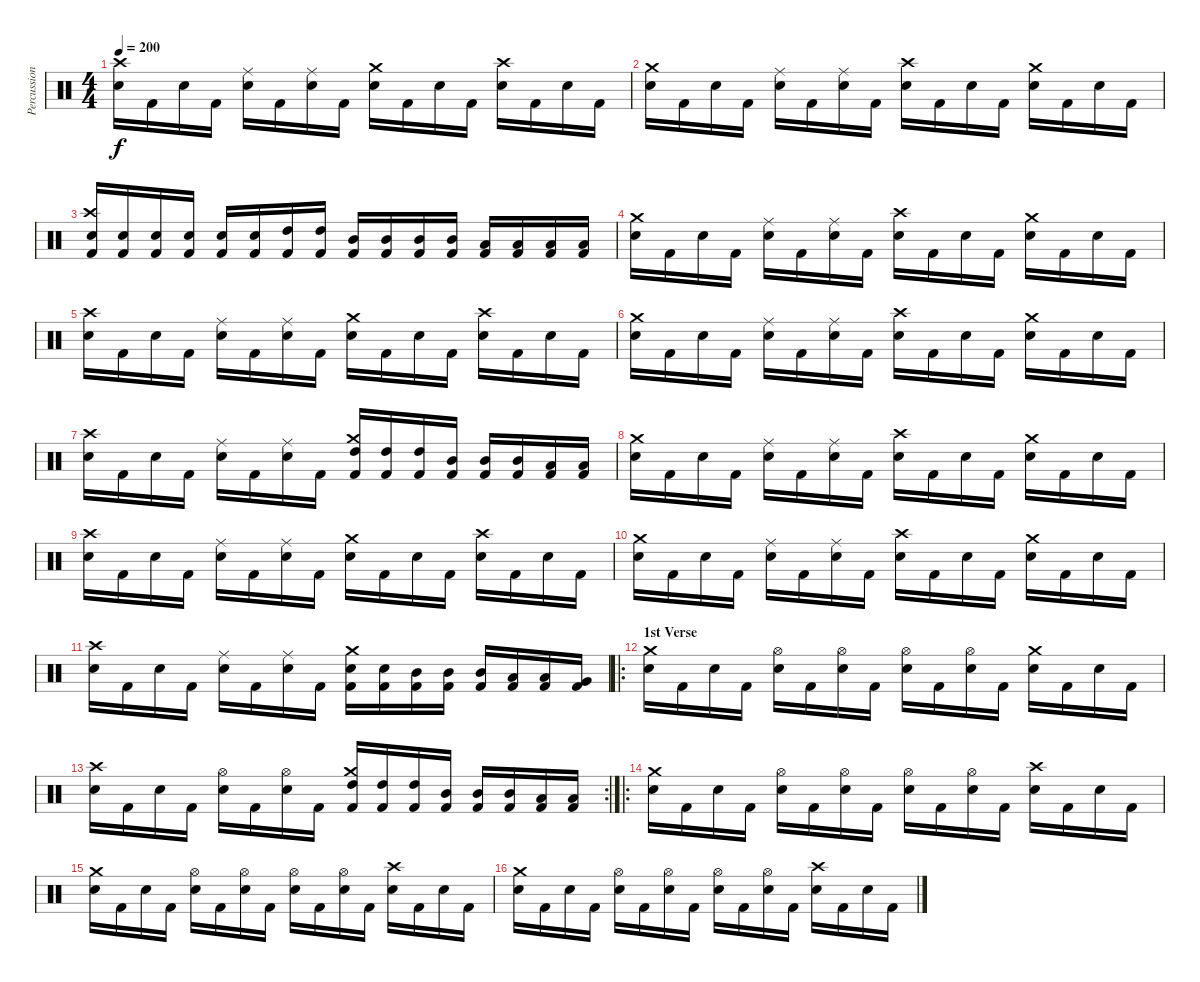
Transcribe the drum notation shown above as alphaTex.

\track ("Percussion" "Percussion") {instrument percussion}
\staff {score}
\articulation defaults
\ts (4 4)
\tempo 200
\clef neutral
\ks c
("Snare (hit) 2" "Crash high (hit)").16{dy f} "Kick (hit) 2".16 "Snare (hit) 2".16 "Kick (hit) 2".16 ("Snare (hit) 2" "Ride (middle)").16 "Kick (hit) 2".16 ("Snare (hit) 2" "Ride (middle)").16 "Kick (hit) 2".16 ("Snare (hit) 2" "Crash medium (hit)").16 "Kick (hit) 2".16 "Snare (hit) 2".16 "Kick (hit) 2".16 ("Snare (hit) 2" "Crash high (hit)").16 "Kick (hit) 2".16 "Snare (hit) 2".16 "Kick (hit) 2".16 |
("Snare (hit) 2" "Crash medium (hit)").16 "Kick (hit) 2".16 "Snare (hit) 2".16 "Kick (hit) 2".16 ("Snare (hit) 2" "Ride (middle)").16 "Kick (hit) 2".16 ("Snare (hit) 2" "Ride (middle)").16 "Kick (hit) 2".16 ("Snare (hit) 2" "Crash high (hit)").16 "Kick (hit) 2".16 "Snare (hit) 2".16 "Kick (hit) 2".16 ("Snare (hit) 2" "Crash medium (hit)").16 "Kick (hit) 2".16 "Snare (hit) 2".16 "Kick (hit) 2".16 |
("Kick (hit) 2" "Snare (hit) 2" "Crash high (hit)").16 ("Kick (hit) 2" "Snare (hit) 2").16 ("Kick (hit) 2" "Snare (hit) 2").16 ("Kick (hit) 2" "Snare (hit) 2").16 ("Kick (hit) 2" "Snare (hit) 2").16 ("Kick (hit) 2" "Snare (hit) 2").16 ("Kick (hit) 2" "High Tom (hit)").16 ("Kick (hit) 2" "High Tom (hit)").16 ("Kick (hit) 2" "Mid Tom (hit)").16 ("Kick (hit) 2" "Mid Tom (hit)").16 ("Kick (hit) 2" "Mid Tom (hit)").16 ("Kick (hit) 2" "Mid Tom (hit)").16 ("Kick (hit) 2" "Low Tom (hit)").16 ("Kick (hit) 2" "Low Tom (hit)").16 ("Kick (hit) 2" "Low Tom (hit)").16 ("Kick (hit) 2" "Low Tom (hit)").16 |
("Snare (hit) 2" "Crash medium (hit)").16 "Kick (hit) 2".16 "Snare (hit) 2".16 "Kick (hit) 2".16 ("Snare (hit) 2" "Ride (middle)").16 "Kick (hit) 2".16 ("Snare (hit) 2" "Ride (middle)").16 "Kick (hit) 2".16 ("Snare (hit) 2" "Crash high (hit)").16 "Kick (hit) 2".16 "Snare (hit) 2".16 "Kick (hit) 2".16 ("Snare (hit) 2" "Crash medium (hit)").16 "Kick (hit) 2".16 "Snare (hit) 2".16 "Kick (hit) 2".16 |
("Snare (hit) 2" "Crash high (hit)").16 "Kick (hit) 2".16 "Snare (hit) 2".16 "Kick (hit) 2".16 ("Snare (hit) 2" "Ride (middle)").16 "Kick (hit) 2".16 ("Snare (hit) 2" "Ride (middle)").16 "Kick (hit) 2".16 ("Snare (hit) 2" "Crash medium (hit)").16 "Kick (hit) 2".16 "Snare (hit) 2".16 "Kick (hit) 2".16 ("Snare (hit) 2" "Crash high (hit)").16 "Kick (hit) 2".16 "Snare (hit) 2".16 "Kick (hit) 2".16 |
("Snare (hit) 2" "Crash medium (hit)").16 "Kick (hit) 2".16 "Snare (hit) 2".16 "Kick (hit) 2".16 ("Snare (hit) 2" "Ride (middle)").16 "Kick (hit) 2".16 ("Snare (hit) 2" "Ride (middle)").16 "Kick (hit) 2".16 ("Snare (hit) 2" "Crash high (hit)").16 "Kick (hit) 2".16 "Snare (hit) 2".16 "Kick (hit) 2".16 ("Snare (hit) 2" "Crash medium (hit)").16 "Kick (hit) 2".16 "Snare (hit) 2".16 "Kick (hit) 2".16 |
("Snare (hit) 2" "Crash high (hit)").16 "Kick (hit) 2".16 "Snare (hit) 2".16 "Kick (hit) 2".16 ("Snare (hit) 2" "Ride (middle)").16 "Kick (hit) 2".16 ("Snare (hit) 2" "Ride (middle)").16 "Kick (hit) 2".16 ("Kick (hit) 2" "High Tom (hit)" "Crash medium (hit)").16 ("Kick (hit) 2" "High Tom (hit)").16 ("Kick (hit) 2" "High Tom (hit)").16 ("Kick (hit) 2" "Mid Tom (hit)").16 ("Kick (hit) 2" "Mid Tom (hit)").16 ("Kick (hit) 2" "Mid Tom (hit)").16 ("Kick (hit) 2" "Low Tom (hit)").16 ("Kick (hit) 2" "Low Tom (hit)").16 |
("Snare (hit) 2" "Crash medium (hit)").16 "Kick (hit) 2".16 "Snare (hit) 2".16 "Kick (hit) 2".16 ("Snare (hit) 2" "Ride (middle)").16 "Kick (hit) 2".16 ("Snare (hit) 2" "Ride (middle)").16 "Kick (hit) 2".16 ("Snare (hit) 2" "Crash high (hit)").16 "Kick (hit) 2".16 "Snare (hit) 2".16 "Kick (hit) 2".16 ("Snare (hit) 2" "Crash medium (hit)").16 "Kick (hit) 2".16 "Snare (hit) 2".16 "Kick (hit) 2".16 |
("Snare (hit) 2" "Crash high (hit)").16 "Kick (hit) 2".16 "Snare (hit) 2".16 "Kick (hit) 2".16 ("Snare (hit) 2" "Ride (middle)").16 "Kick (hit) 2".16 ("Snare (hit) 2" "Ride (middle)").16 "Kick (hit) 2".16 ("Snare (hit) 2" "Crash medium (hit)").16 "Kick (hit) 2".16 "Snare (hit) 2".16 "Kick (hit) 2".16 ("Snare (hit) 2" "Crash high (hit)").16 "Kick (hit) 2".16 "Snare (hit) 2".16 "Kick (hit) 2".16 |
("Snare (hit) 2" "Crash medium (hit)").16 "Kick (hit) 2".16 "Snare (hit) 2".16 "Kick (hit) 2".16 ("Snare (hit) 2" "Ride (middle)").16 "Kick (hit) 2".16 ("Snare (hit) 2" "Ride (middle)").16 "Kick (hit) 2".16 ("Snare (hit) 2" "Crash high (hit)").16 "Kick (hit) 2".16 "Snare (hit) 2".16 "Kick (hit) 2".16 ("Snare (hit) 2" "Crash medium (hit)").16 "Kick (hit) 2".16 "Snare (hit) 2".16 "Kick (hit) 2".16 |
("Snare (hit) 2" "Crash high (hit)").16 "Kick (hit) 2".16 "Snare (hit) 2".16 "Kick (hit) 2".16 ("Snare (hit) 2" "Ride (middle)").16 "Kick (hit) 2".16 ("Snare (hit) 2" "Ride (middle)").16 "Kick (hit) 2".16 ("Kick (hit) 2" "Snare (hit) 2" "Crash medium (hit)").16 ("Kick (hit) 2" "Snare (hit) 2").16 ("Kick (hit) 2" "Mid Tom (hit)").16 ("Kick (hit) 2" "Mid Tom (hit)").16 ("Kick (hit) 2" "Mid Tom (hit)").16 ("Kick (hit) 2" "Low Tom (hit)").16 ("Kick (hit) 2" "Low Tom (hit)").16 ("Kick (hit) 2" "Very Low Tom (hit)").16 |
\ro
\section ("" "1st Verse")
("Snare (hit) 2" "Crash medium (hit)").16 "Kick (hit) 2".16 "Snare (hit) 2".16 "Kick (hit) 2".16 ("Snare (hit) 2" "Hi-Hat (open)").16 "Kick (hit) 2".16 ("Snare (hit) 2" "Hi-Hat (open)").16 "Kick (hit) 2".16 ("Snare (hit) 2" "Hi-Hat (open)").16 "Kick (hit) 2".16 ("Snare (hit) 2" "Hi-Hat (open)").16 "Kick (hit) 2".16 ("Snare (hit) 2" "Crash medium (hit)").16 "Kick (hit) 2".16 "Snare (hit) 2".16 "Kick (hit) 2".16 |
\rc 2
("Snare (hit) 2" "Crash high (hit)").16 "Kick (hit) 2".16 "Snare (hit) 2".16 "Kick (hit) 2".16 ("Snare (hit) 2" "Hi-Hat (open)").16 "Kick (hit) 2".16 ("Snare (hit) 2" "Hi-Hat (open)").16 "Kick (hit) 2".16 ("Kick (hit) 2" "High Tom (hit)" "Crash medium (hit)").16 ("Kick (hit) 2" "High Tom (hit)").16 ("Kick (hit) 2" "High Tom (hit)").16 ("Kick (hit) 2" "Mid Tom (hit)").16 ("Kick (hit) 2" "Mid Tom (hit)").16 ("Kick (hit) 2" "Mid Tom (hit)").16 ("Kick (hit) 2" "Low Tom (hit)").16 ("Kick (hit) 2" "Low Tom (hit)").16 |
\ro
("Snare (hit) 2" "Crash medium (hit)").16 "Kick (hit) 2".16 "Snare (hit) 2".16 "Kick (hit) 2".16 ("Snare (hit) 2" "Hi-Hat (open)").16 "Kick (hit) 2".16 ("Snare (hit) 2" "Hi-Hat (open)").16 "Kick (hit) 2".16 ("Snare (hit) 2" "Hi-Hat (open)").16 "Kick (hit) 2".16 ("Snare (hit) 2" "Hi-Hat (open)").16 "Kick (hit) 2".16 ("Snare (hit) 2" "Crash high (hit)").16 "Kick (hit) 2".16 "Snare (hit) 2".16 "Kick (hit) 2".16 |
("Snare (hit) 2" "Crash medium (hit)").16 "Kick (hit) 2".16 "Snare (hit) 2".16 "Kick (hit) 2".16 ("Snare (hit) 2" "Hi-Hat (open)").16 "Kick (hit) 2".16 ("Snare (hit) 2" "Hi-Hat (open)").16 "Kick (hit) 2".16 ("Snare (hit) 2" "Hi-Hat (open)").16 "Kick (hit) 2".16 ("Snare (hit) 2" "Hi-Hat (open)").16 "Kick (hit) 2".16 ("Snare (hit) 2" "Crash high (hit)").16 "Kick (hit) 2".16 "Snare (hit) 2".16 "Kick (hit) 2".16 |
("Snare (hit) 2" "Crash medium (hit)").16 "Kick (hit) 2".16 "Snare (hit) 2".16 "Kick (hit) 2".16 ("Snare (hit) 2" "Hi-Hat (open)").16 "Kick (hit) 2".16 ("Snare (hit) 2" "Hi-Hat (open)").16 "Kick (hit) 2".16 ("Snare (hit) 2" "Hi-Hat (open)").16 "Kick (hit) 2".16 ("Snare (hit) 2" "Hi-Hat (open)").16 "Kick (hit) 2".16 ("Snare (hit) 2" "Crash high (hit)").16 "Kick (hit) 2".16 "Snare (hit) 2".16 "Kick (hit) 2".16
